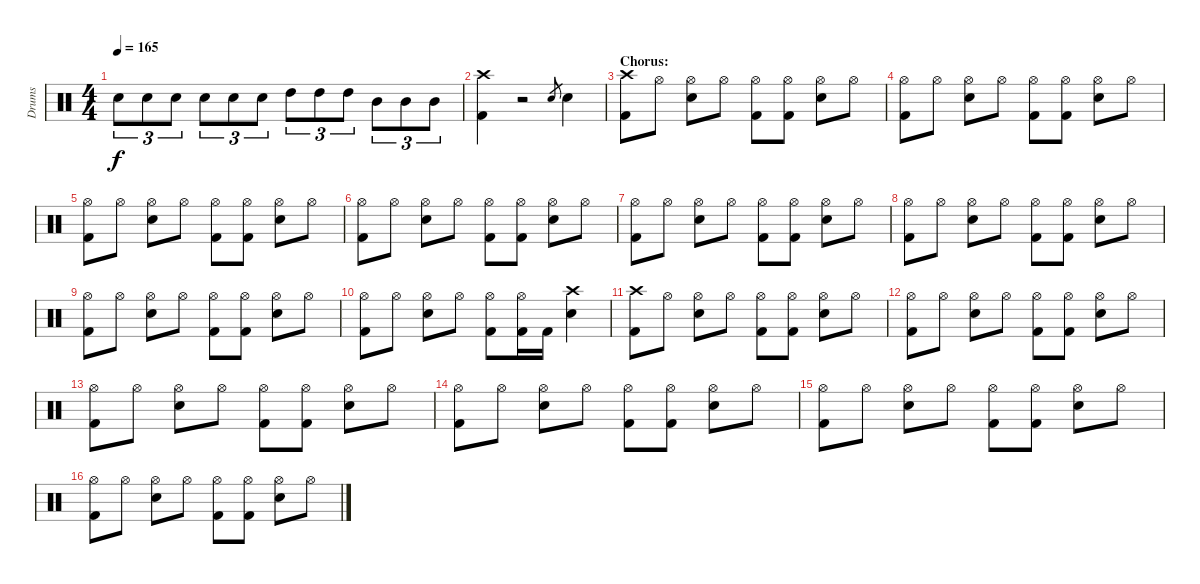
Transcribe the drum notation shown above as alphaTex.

\track ("Drums" "Drums") {instrument percussion}
\staff {score}
\articulation defaults
\ts (4 4)
\tempo 165
\clef neutral
\ks c "Electric Snare (hit)".8{tu (3 2) dy f} "Electric Snare (hit)".8{tu (3 2)} "Electric Snare (hit)".8{tu (3 2)} "Electric Snare (hit)".8{tu (3 2)} "Electric Snare (hit)".8{tu (3 2)} "Electric Snare (hit)".8{tu (3 2)} "High Tom (hit)".8{tu (3 2)} "High Tom (hit)".8{tu (3 2)} "High Tom (hit)".8{tu (3 2)} "Mid Tom (hit)".8{tu (3 2)} "Mid Tom (hit)".8{tu (3 2)} "Mid Tom (hit)".8{tu (3 2)}
|
("Crash high (hit)" "Kick (hit) 2").4 r.2 "Electric Snare (hit)".8{gr} "Electric Snare (hit)".4 |
\section ("" "Chorus:")
("Crash high (hit)" "Kick (hit) 2").8 "Hi-Hat (open)".8 ("Hi-Hat (open)" "Electric Snare (hit)").8 "Hi-Hat (open)".8 ("Hi-Hat (open)" "Kick (hit) 2").8 ("Hi-Hat (open)" "Kick (hit) 2").8 ("Hi-Hat (open)" "Electric Snare (hit)").8 "Hi-Hat (open)".8 |
("Hi-Hat (open)" "Kick (hit) 2").8 "Hi-Hat (open)".8 ("Hi-Hat (open)" "Electric Snare (hit)").8 "Hi-Hat (open)".8 ("Hi-Hat (open)" "Kick (hit) 2").8 ("Hi-Hat (open)" "Kick (hit) 2").8 ("Hi-Hat (open)" "Electric Snare (hit)").8 "Hi-Hat (open)".8 |
("Hi-Hat (open)" "Kick (hit) 2").8 "Hi-Hat (open)".8 ("Hi-Hat (open)" "Electric Snare (hit)").8 "Hi-Hat (open)".8 ("Hi-Hat (open)" "Kick (hit) 2").8 ("Hi-Hat (open)" "Kick (hit) 2").8 ("Hi-Hat (open)" "Electric Snare (hit)").8 "Hi-Hat (open)".8 |
("Hi-Hat (open)" "Kick (hit) 2").8 "Hi-Hat (open)".8 ("Hi-Hat (open)" "Electric Snare (hit)").8 "Hi-Hat (open)".8 ("Hi-Hat (open)" "Kick (hit) 2").8 ("Hi-Hat (open)" "Kick (hit) 2").8 ("Hi-Hat (open)" "Electric Snare (hit)").8 "Hi-Hat (open)".8 |
("Hi-Hat (open)" "Kick (hit) 2").8 "Hi-Hat (open)".8 ("Hi-Hat (open)" "Electric Snare (hit)").8 "Hi-Hat (open)".8 ("Hi-Hat (open)" "Kick (hit) 2").8 ("Hi-Hat (open)" "Kick (hit) 2").8 ("Hi-Hat (open)" "Electric Snare (hit)").8 "Hi-Hat (open)".8 |
("Hi-Hat (open)" "Kick (hit) 2").8 "Hi-Hat (open)".8 ("Hi-Hat (open)" "Electric Snare (hit)").8 "Hi-Hat (open)".8 ("Hi-Hat (open)" "Kick (hit) 2").8 ("Hi-Hat (open)" "Kick (hit) 2").8 ("Hi-Hat (open)" "Electric Snare (hit)").8 "Hi-Hat (open)".8 |
("Hi-Hat (open)" "Kick (hit) 2").8 "Hi-Hat (open)".8 ("Hi-Hat (open)" "Electric Snare (hit)").8 "Hi-Hat (open)".8 ("Hi-Hat (open)" "Kick (hit) 2").8 ("Hi-Hat (open)" "Kick (hit) 2").8 ("Hi-Hat (open)" "Electric Snare (hit)").8 "Hi-Hat (open)".8 |
("Hi-Hat (open)" "Kick (hit) 2").8 "Hi-Hat (open)".8 ("Hi-Hat (open)" "Electric Snare (hit)").8 "Hi-Hat (open)".8 ("Hi-Hat (open)" "Kick (hit) 2").8 ("Hi-Hat (open)" "Kick (hit) 2").16 "Kick (hit) 2".16 ("Crash high (hit)" "Electric Snare (hit)").4 |
("Crash high (hit)" "Kick (hit) 2").8 "Hi-Hat (open)".8 ("Hi-Hat (open)" "Electric Snare (hit)").8 "Hi-Hat (open)".8 ("Hi-Hat (open)" "Kick (hit) 2").8 ("Hi-Hat (open)" "Kick (hit) 2").8 ("Hi-Hat (open)" "Electric Snare (hit)").8 "Hi-Hat (open)".8 |
("Hi-Hat (open)" "Kick (hit) 2").8 "Hi-Hat (open)".8 ("Hi-Hat (open)" "Electric Snare (hit)").8 "Hi-Hat (open)".8 ("Hi-Hat (open)" "Kick (hit) 2").8 ("Hi-Hat (open)" "Kick (hit) 2").8 ("Hi-Hat (open)" "Electric Snare (hit)").8 "Hi-Hat (open)".8 |
("Hi-Hat (open)" "Kick (hit) 2").8 "Hi-Hat (open)".8 ("Hi-Hat (open)" "Electric Snare (hit)").8 "Hi-Hat (open)".8 ("Hi-Hat (open)" "Kick (hit) 2").8 ("Hi-Hat (open)" "Kick (hit) 2").8 ("Hi-Hat (open)" "Electric Snare (hit)").8 "Hi-Hat (open)".8 |
("Hi-Hat (open)" "Kick (hit) 2").8 "Hi-Hat (open)".8 ("Hi-Hat (open)" "Electric Snare (hit)").8 "Hi-Hat (open)".8 ("Hi-Hat (open)" "Kick (hit) 2").8 ("Hi-Hat (open)" "Kick (hit) 2").8 ("Hi-Hat (open)" "Electric Snare (hit)").8 "Hi-Hat (open)".8 |
("Hi-Hat (open)" "Kick (hit) 2").8 "Hi-Hat (open)".8 ("Hi-Hat (open)" "Electric Snare (hit)").8 "Hi-Hat (open)".8 ("Hi-Hat (open)" "Kick (hit) 2").8 ("Hi-Hat (open)" "Kick (hit) 2").8 ("Hi-Hat (open)" "Electric Snare (hit)").8 "Hi-Hat (open)".8 |
("Hi-Hat (open)" "Kick (hit) 2").8 "Hi-Hat (open)".8 ("Hi-Hat (open)" "Electric Snare (hit)").8 "Hi-Hat (open)".8 ("Hi-Hat (open)" "Kick (hit) 2").8 ("Hi-Hat (open)" "Kick (hit) 2").8 ("Hi-Hat (open)" "Electric Snare (hit)").8 "Hi-Hat (open)".8
